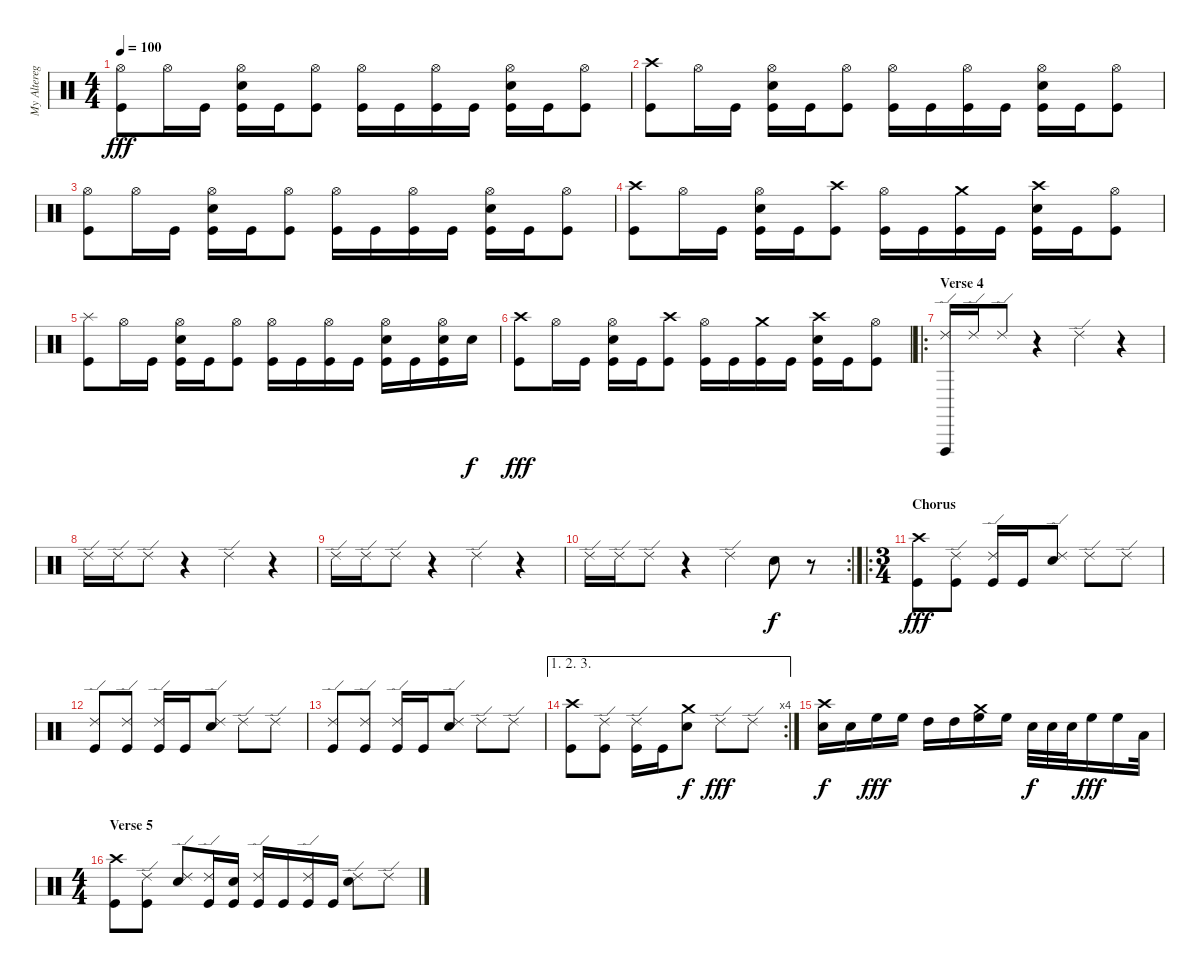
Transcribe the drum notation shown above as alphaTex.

\track ("My Alterego Playing Drums" "My Altereg") {instrument percussion}
\staff {score}
\articulation defaults
\ts (4 4)
\tempo 100
\clef neutral
\ks c
("Hi-Hat (open)" "Kick (hit)").8{dy fff} "Hi-Hat (open)".16 "Kick (hit)".16 ("Hi-Hat (open)" "Snare (hit) 2" "Kick (hit)").16 "Kick (hit)".16 ("Hi-Hat (open)" "Kick (hit)").8 ("Hi-Hat (open)" "Kick (hit)").16 "Kick (hit)".16 ("Hi-Hat (open)" "Kick (hit)").16 "Kick (hit)".16 ("Hi-Hat (open)" "Snare (hit) 2" "Kick (hit)").16 "Kick (hit)".16 ("Hi-Hat (open)" "Kick (hit)").8 |
("Crash high (hit)" "Kick (hit)").8 "Hi-Hat (open)".16 "Kick (hit)".16 ("Hi-Hat (open)" "Snare (hit) 2" "Kick (hit)").16 "Kick (hit)".16 ("Hi-Hat (open)" "Kick (hit)").8 ("Hi-Hat (open)" "Kick (hit)").16 "Kick (hit)".16 ("Hi-Hat (open)" "Kick (hit)").16 "Kick (hit)".16 ("Hi-Hat (open)" "Snare (hit) 2" "Kick (hit)").16 "Kick (hit)".16 ("Hi-Hat (open)" "Kick (hit)").8 |
("Hi-Hat (open)" "Kick (hit)").8 "Hi-Hat (open)".16 "Kick (hit)".16 ("Hi-Hat (open)" "Snare (hit) 2" "Kick (hit)").16 "Kick (hit)".16 ("Hi-Hat (open)" "Kick (hit)").8 ("Hi-Hat (open)" "Kick (hit)").16 "Kick (hit)".16 ("Hi-Hat (open)" "Kick (hit)").16 "Kick (hit)".16 ("Hi-Hat (open)" "Snare (hit) 2" "Kick (hit)").16 "Kick (hit)".16 ("Hi-Hat (open)" "Kick (hit)").8 |
("Crash high (hit)" "Kick (hit)").8 "Hi-Hat (open)".16 "Kick (hit)".16 ("Hi-Hat (open)" "Snare (hit) 2" "Kick (hit)").16 "Kick (hit)".16 ("Crash high (hit)" "Kick (hit)").8 ("Hi-Hat (open)" "Kick (hit)").16 "Kick (hit)".16 ("Crash medium (hit)" "Kick (hit)").16 "Kick (hit)".16 ("Crash high (hit)" "Snare (hit) 2" "Kick (hit)").16 "Kick (hit)".16 ("Hi-Hat (open)" "Kick (hit)").8 |
("Splash (hit)" "Kick (hit)").8 "Hi-Hat (open)".16 "Kick (hit)".16 ("Hi-Hat (open)" "Snare (hit) 2" "Kick (hit)").16 "Kick (hit)".16 ("Hi-Hat (open)" "Kick (hit)").8 ("Hi-Hat (open)" "Kick (hit)").16 "Kick (hit)".16 ("Hi-Hat (open)" "Kick (hit)").16 "Kick (hit)".16 ("Hi-Hat (open)" "Snare (hit) 2" "Kick (hit)").16 "Kick (hit)".16 ("Hi-Hat (open)" "Snare (hit) 2" "Kick (hit)").16 "Snare (hit) 2".16{dy f} |
("Crash high (hit)" "Kick (hit)").8{dy fff} "Hi-Hat (open)".16 "Kick (hit)".16 ("Hi-Hat (open)" "Snare (hit) 2" "Kick (hit)").16 "Kick (hit)".16 ("Crash high (hit)" "Kick (hit)").8 ("Hi-Hat (open)" "Kick (hit)").16 "Kick (hit)".16 ("Crash medium (hit)" "Kick (hit)").16 "Kick (hit)".16 ("Crash high (hit)" "Snare (hit) 2" "Kick (hit)").16 "Kick (hit)".16 ("Hi-Hat (open)" "Kick (hit)").8 |
\ro
\section ("" "Verse 4")
("Ride (edge) 2" "Vibraslap (hit)").16 "Ride (edge) 2".16 "Ride (edge) 2".8 r.4 "Ride (edge) 2".4 r.4 |
"Ride (edge) 2".16 "Ride (edge) 2".16 "Ride (edge) 2".8 r.4 "Ride (edge) 2".4 r.4 |
"Ride (edge) 2".16 "Ride (edge) 2".16 "Ride (edge) 2".8 r.4 "Ride (edge) 2".4 r.4 |
\rc 2 "Ride (edge) 2".16 "Ride (edge) 2".16 "Ride (edge) 2".8
r.4 "Ride (edge) 2".4 "Snare (hit) 2".8{dy f} r.8 |
\ro
\ts (3 4)
\section ("" "Chorus")
("Crash high (hit)" "Kick (hit)").8{dy fff} ("Ride (edge) 2" "Kick (hit)").8 ("Ride (edge) 2" "Kick (hit)").16 "Kick (hit)".16 ("Ride (edge) 2" "Snare (hit) 2").8 "Ride (edge) 2".8 "Ride (edge) 2".8 |
("Ride (edge) 2" "Kick (hit)").8 ("Ride (edge) 2" "Kick (hit)").8 ("Ride (edge) 2" "Kick (hit)").16 "Kick (hit)".16 ("Ride (edge) 2" "Snare (hit) 2").8 "Ride (edge) 2".8 "Ride (edge) 2".8 |
("Ride (edge) 2" "Kick (hit)").8 ("Ride (edge) 2" "Kick (hit)").8 ("Ride (edge) 2" "Kick (hit)").16 "Kick (hit)".16 ("Ride (edge) 2" "Snare (hit) 2").8 "Ride (edge) 2".8 "Ride (edge) 2".8 |
\ae (1 2 3)
\rc 4
("Crash high (hit)" "Kick (hit)").8 ("Ride (edge) 2" "Kick (hit)").8 ("Ride (edge) 2" "Kick (hit)").16 "Kick (hit)".16 ("Crash medium (hit)" "Snare (hit) 2").8{dy f} "Ride (edge) 2".8{dy fff} "Ride (edge) 2".8 |
("Crash high (hit)" "Snare (hit) 2").16{dy f} "Snare (hit) 2".16 "High Floor Tom (hit)".16{dy fff} "High Floor Tom (hit)".16 "High Tom (hit)".16 "High Tom (hit)".16 ("Crash medium (hit)" "High Floor Tom (hit)").16 "High Floor Tom (hit)".16 "Snare (hit) 2".32{dy f} "Snare (hit) 2".32 "Snare (hit) 2".32 "High Floor Tom (hit)".16{dy fff} "High Floor Tom (hit)".16 "Low Tom (hit)".32 |
\ts (4 4)
\section ("" "Verse 5")
("Crash high (hit)" "Kick (hit)").8 ("Ride (edge) 2" "Kick (hit)").8 ("Ride (edge) 2" "Snare (hit) 2").8 ("Ride (edge) 2" "Kick (hit)").16 ("Snare (hit) 2" "Kick (hit)").16 ("Ride (edge) 2" "Kick (hit)").16 "Kick (hit)".16 ("Ride (edge) 2" "Kick (hit)").16 "Kick (hit)".16 ("Ride (edge) 2" "Snare (hit) 2").8 "Ride (edge) 2".8
